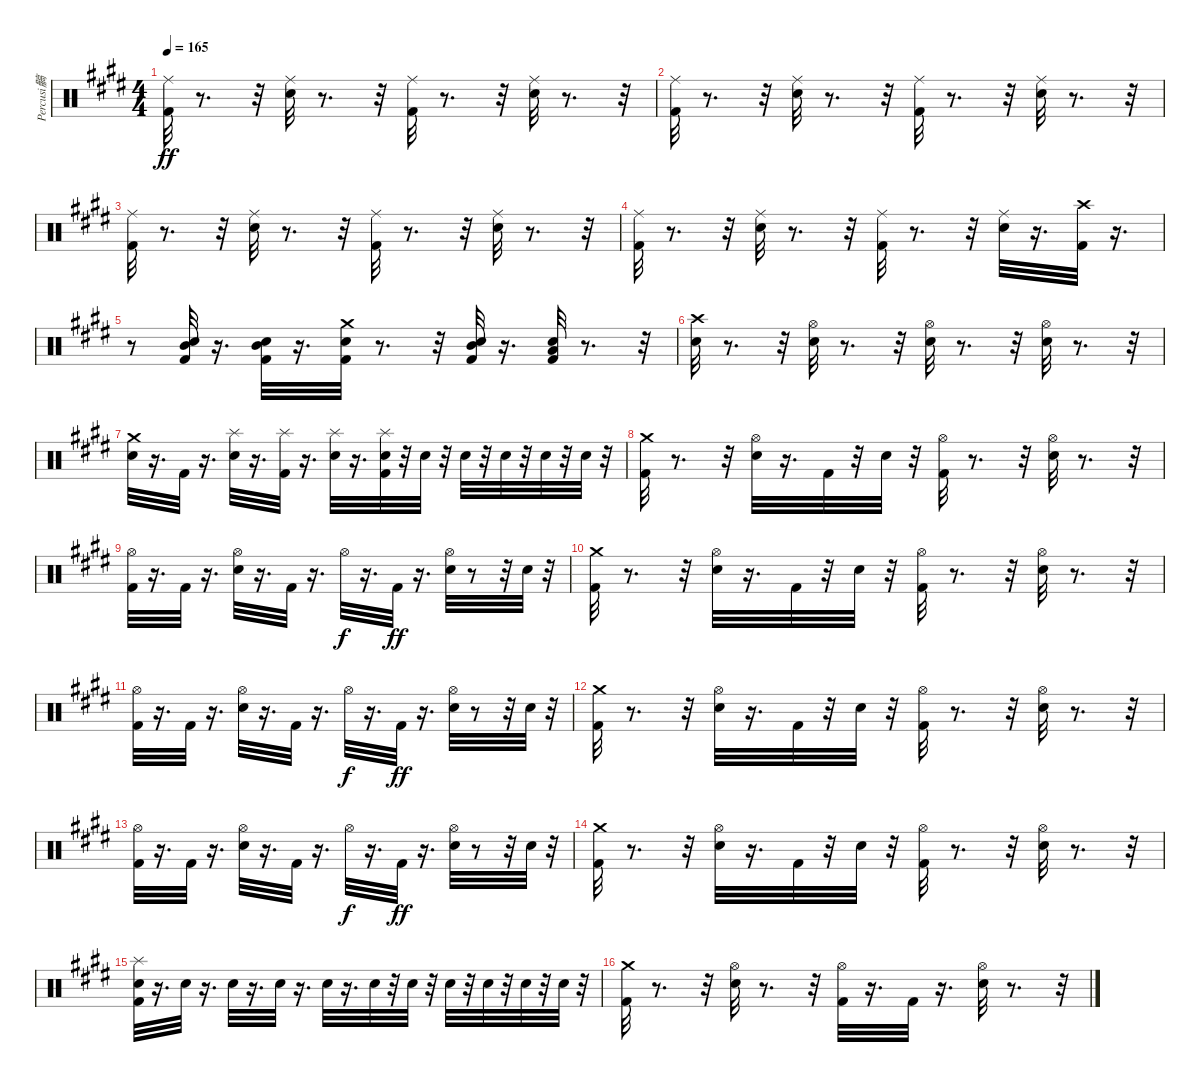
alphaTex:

\track ("Percusi髇" "Percusi髇") {instrument percussion}
\staff {score}
\articulation defaults
\ts (4 4)
\tempo 165
\clef neutral
\ks e
("Kick (hit) 2" "Ride (middle)").32{dy ff} r.8{d} r.32 ("Electric Snare (hit)" "Ride (middle)").32 r.8{d} r.32 ("Kick (hit) 2" "Ride (middle)").32 r.8{d} r.32 ("Electric Snare (hit)" "Ride (middle)").32 r.8{d} r.32 |
("Kick (hit) 2" "Ride (middle)").32 r.8{d} r.32 ("Electric Snare (hit)" "Ride (middle)").32 r.8{d} r.32 ("Kick (hit) 2" "Ride (middle)").32 r.8{d} r.32 ("Electric Snare (hit)" "Ride (middle)").32 r.8{d} r.32 |
("Kick (hit) 2" "Ride (middle)").32 r.8{d} r.32 ("Electric Snare (hit)" "Ride (middle)").32 r.8{d} r.32 ("Kick (hit) 2" "Ride (middle)").32 r.8{d} r.32 ("Electric Snare (hit)" "Ride (middle)").32 r.8{d} r.32 |
("Kick (hit) 2" "Ride (middle)").32 r.8{d} r.32 ("Electric Snare (hit)" "Ride (middle)").32 r.8{d} r.32 ("Kick (hit) 2" "Ride (middle)").32 r.8{d} r.32 ("Electric Snare (hit)" "Ride (middle)").32 r.16{d} ("Crash high (hit)" "Kick (hit) 2").32 r.16{d} |
r.8 ("Mid Tom (hit)" "Kick (hit) 2" "Electric Snare (hit)").32 r.16{d} ("Mid Tom (hit)" "Kick (hit) 2" "Electric Snare (hit)").32 r.16{d} ("Crash medium (hit)" "Kick (hit) 2" "Electric Snare (hit)").32 r.8{d} r.32 ("Mid Tom (hit)" "Kick (hit) 2" "Electric Snare (hit)").32 r.16{d} ("Kick (hit) 2" "Low Tom (hit)" "Electric Snare (hit)").32 r.8{d} r.32 |
("Crash high (hit)" "Electric Snare (hit)").32 r.8{d} r.32 ("Electric Snare (hit)" "Hi-Hat (open)").32 r.8{d} r.32 ("Electric Snare (hit)" "Hi-Hat (open)").32 r.8{d} r.32 ("Electric Snare (hit)" "Hi-Hat (open)").32 r.8{d} r.32 |
("Crash medium (hit)" "Electric Snare (hit)").32 r.16{d} "Kick (hit) 2".32 r.16{d} ("Splash (hit)" "Electric Snare (hit)").32 r.16{d} ("Splash (hit)" "Kick (hit) 2").32 r.16{d} ("Splash (hit)" "Electric Snare (hit)").32 r.16{d} ("Splash (hit)" "Kick (hit) 2" "Electric Snare (hit)").32 r.32 "Electric Snare (hit)".32 r.32 "Electric Snare (hit)".32 r.32 "Electric Snare (hit)".32 r.32 "Electric Snare (hit)".32 r.32 "Electric Snare (hit)".32 r.32 |
("Crash medium (hit)" "Kick (hit) 2").32 r.8{d} r.32 ("Electric Snare (hit)" "Hi-Hat (open)").32 r.16{d} "Kick (hit) 2".32 r.32 "Electric Snare (hit)".32 r.32 ("Kick (hit) 2" "Hi-Hat (open)").32 r.8{d} r.32 ("Electric Snare (hit)" "Hi-Hat (open)").32 r.8{d} r.32 |
("Kick (hit) 2" "Hi-Hat (open)").32 r.16{d} "Kick (hit) 2".32 r.16{d} ("Electric Snare (hit)" "Hi-Hat (open)").32 r.16{d} "Kick (hit) 2".32 r.16{d} "Hi-Hat (open)".32{dy f} r.16{d} "Kick (hit) 2".32{dy ff} r.16{d} ("Electric Snare (hit)" "Hi-Hat (open)").32 r.8 r.32 "Electric Snare (hit)".32 r.32 |
("Crash medium (hit)" "Kick (hit) 2").32 r.8{d} r.32 ("Electric Snare (hit)" "Hi-Hat (open)").32 r.16{d} "Kick (hit) 2".32 r.32 "Electric Snare (hit)".32 r.32 ("Kick (hit) 2" "Hi-Hat (open)").32 r.8{d} r.32 ("Electric Snare (hit)" "Hi-Hat (open)").32 r.8{d} r.32 |
("Kick (hit) 2" "Hi-Hat (open)").32 r.16{d} "Kick (hit) 2".32 r.16{d} ("Electric Snare (hit)" "Hi-Hat (open)").32 r.16{d} "Kick (hit) 2".32 r.16{d} "Hi-Hat (open)".32{dy f} r.16{d} "Kick (hit) 2".32{dy ff} r.16{d} ("Electric Snare (hit)" "Hi-Hat (open)").32 r.8 r.32 "Electric Snare (hit)".32 r.32 |
("Crash medium (hit)" "Kick (hit) 2").32 r.8{d} r.32 ("Electric Snare (hit)" "Hi-Hat (open)").32 r.16{d} "Kick (hit) 2".32 r.32 "Electric Snare (hit)".32 r.32 ("Kick (hit) 2" "Hi-Hat (open)").32 r.8{d} r.32 ("Electric Snare (hit)" "Hi-Hat (open)").32 r.8{d} r.32 |
("Kick (hit) 2" "Hi-Hat (open)").32 r.16{d} "Kick (hit) 2".32 r.16{d} ("Electric Snare (hit)" "Hi-Hat (open)").32 r.16{d} "Kick (hit) 2".32 r.16{d} "Hi-Hat (open)".32{dy f} r.16{d} "Kick (hit) 2".32{dy ff} r.16{d} ("Electric Snare (hit)" "Hi-Hat (open)").32 r.8 r.32 "Electric Snare (hit)".32 r.32 |
("Crash medium (hit)" "Kick (hit) 2").32 r.8{d} r.32 ("Electric Snare (hit)" "Hi-Hat (open)").32 r.16{d} "Kick (hit) 2".32 r.32 "Electric Snare (hit)".32 r.32 ("Kick (hit) 2" "Hi-Hat (open)").32 r.8{d} r.32 ("Electric Snare (hit)" "Hi-Hat (open)").32 r.8{d} r.32 |
("Splash (hit)" "Kick (hit) 2" "Electric Snare (hit)").32 r.16{d} "Electric Snare (hit)".32 r.16{d} "Electric Snare (hit)".32 r.16{d} "Electric Snare (hit)".32 r.16{d} "Electric Snare (hit)".32 r.16{d} "Electric Snare (hit)".32 r.32 "Electric Snare (hit)".32 r.32 "Electric Snare (hit)".32 r.32 "Electric Snare (hit)".32 r.32 "Electric Snare (hit)".32 r.32 "Electric Snare (hit)".32 r.32 |
("Crash medium (hit)" "Kick (hit) 2").32 r.8{d} r.32 ("Electric Snare (hit)" "Hi-Hat (open)").32 r.8{d} r.32 ("Kick (hit) 2" "Hi-Hat (open)").32 r.16{d} "Kick (hit) 2".32 r.16{d} ("Electric Snare (hit)" "Hi-Hat (open)").32 r.8{d} r.32
